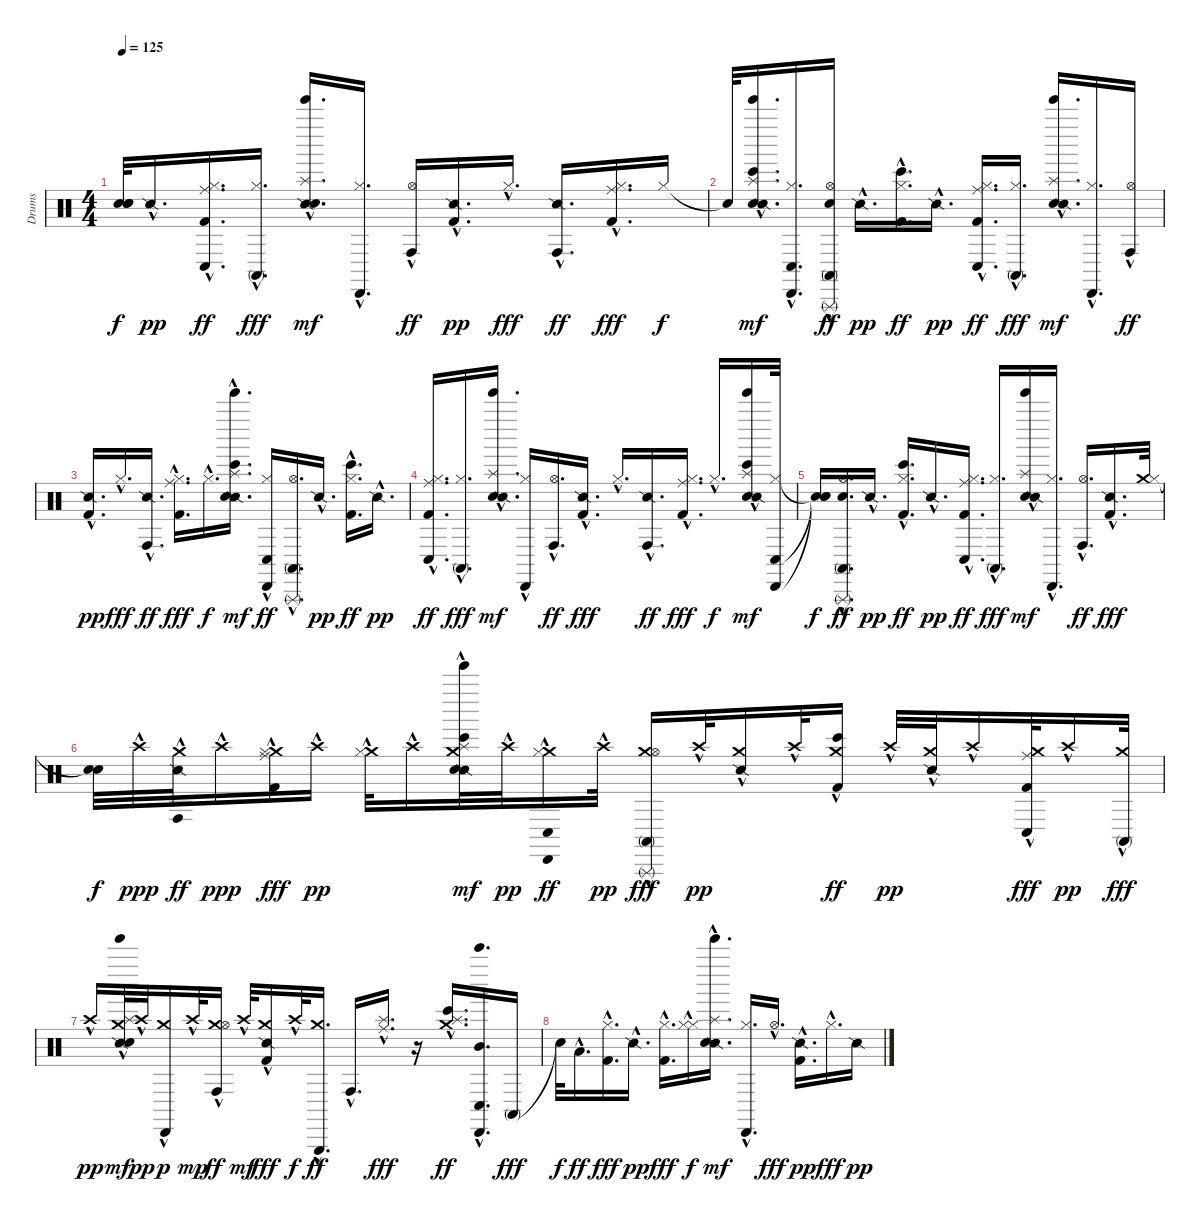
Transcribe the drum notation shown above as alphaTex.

\track ("Drums" "Drums") {instrument percussion}
\staff {score}
\articulation defaults
\ts (4 4)
\tempo 125
\clef neutral
\ks c
("Snare (hit)"{t} "Snare (hit)"{t} "Snare (hit)"{t}).32{dy f} "Snare (side stick) 2"{hac}.16{d dy pp} ("Ride (middle)"{hac} "Hi-Hat (closed)"{hac} "Kick (hit) 2"{hac} "Conga low (hit)"{hac}).16{d dy ff} ("Hi-Hat (closed)"{hac} "Conga high (mute)"{hac}).16{d dy fff} ("Snare (side stick) 2"{hac} "Hand Clap (hit)"{hac} "Tinkle Bell (hit)"{hac} "Splash (hit)"{hac}).16{d dy mf} ("Hi-Hat (closed)"{hac} "Cabasa (hit)"{hac}).16{d} ("Hi-Hat (open)"{hac} "Conga high (hit)"{hac}).16{dy ff} ("Kick (hit) 2"{hac} "Snare (side stick) 2"{hac}).16{d dy pp} "Hi-Hat (closed)"{hac}.16{d dy fff} ("Snare (side stick) 2"{hac} "Conga high (hit)"{hac}).16{d dy ff} ("Ride (middle)"{hac} "Kick (hit) 2"{hac} "Hi-Hat (closed)"{hac}).16{d dy fff} "Hi-Hat (closed)".16{dy f} |
"Snare (hit)"{t}.32 ("Hand Clap (hit)"{hac} "Bongo High (hit)"{hac} "Snare (side stick) 2"{hac} "Tinkle Bell (hit)"{hac} "Splash (hit)"{hac}).16{d dy mf} ("Cabasa (hit)"{hac} "Conga low (hit)"{hac} "Hi-Hat (closed)"{hac}).16{d} ("Hi-Hat (open)"{hac} "Conga high (mute)"{hac} "Hand Clap (hit)"{hac} "Triangle (rnute)"{hac}).16{dy ff} "Snare (side stick) 2"{hac}.16{d dy pp} ("Kick (hit) 2"{hac} "Hi-Hat (closed)"{hac} "Bongo High (hit)"{hac}).16{d dy ff} "Snare (side stick) 2"{hac}.16{d dy pp} ("Ride (middle)"{hac} "Hi-Hat (closed)"{hac} "Kick (hit) 2"{hac} "Conga low (hit)"{hac}).16{d dy ff} ("Hi-Hat (closed)"{hac} "Conga high (mute)"{hac}).16{d dy fff} ("Hand Clap (hit)"{hac} "Snare (side stick) 2"{hac} "Tinkle Bell (hit)"{hac} "Splash (hit)"{hac}).16{d dy mf} ("Hi-Hat (closed)"{hac} "Cabasa (hit)"{hac}).16{d} ("Hi-Hat (open)"{hac} "Conga high (hit)"{hac}).16{dy ff} |
("Kick (hit) 2"{hac} "Snare (side stick) 2"{hac}).16{d dy pp} "Hi-Hat (closed)"{hac}.16{d dy fff} ("Snare (side stick) 2"{hac} "Conga high (hit)"{hac}).16{d dy ff} ("Ride (middle)"{hac} "Hi-Hat (closed)"{hac} "Kick (hit) 2"{hac}).16{d dy fff} "Hi-Hat (closed)"{hac}.16{d dy f} ("Bongo High (hit)"{hac} "Snare (side stick) 2"{hac} "Hand Clap (hit)"{hac} "Tinkle Bell (hit)"{hac} "Splash (hit)"{hac}).16{d dy mf} ("Hi-Hat (closed)"{hac} "Conga low (hit)"{hac} "Cabasa (hit)"{hac}).16{dy ff} ("Hi-Hat (open)"{hac} "Conga high (mute)"{hac} "Triangle (rnute)"{hac}).16{d} "Snare (side stick) 2"{hac}.16{d dy pp} ("Kick (hit) 2"{hac} "Hi-Hat (closed)"{hac} "Bongo High (hit)"{hac}).16{d dy ff} "Snare (side stick) 2"{hac}.16{d dy pp} |
("Kick (hit) 2"{hac} "Hi-Hat (closed)"{hac} "Ride (middle)"{hac} "Conga low (hit)"{hac}).16{d dy ff} ("Hi-Hat (closed)"{hac} "Conga high (mute)"{hac}).16{d dy fff} ("Hand Clap (hit)"{hac} "Snare (side stick) 2"{hac} "Tinkle Bell (hit)"{hac} "Splash (hit)"{hac}).16{d dy mf} ("Cabasa (hit)"{hac} "Hi-Hat (closed)"{hac}).16 ("Hi-Hat (open)"{hac} "Conga high (hit)"{hac}).16{d dy ff} ("Snare (side stick) 2"{hac} "Kick (hit) 2"{hac}).16{d dy fff} "Hi-Hat (closed)"{hac}.16{d} ("Snare (side stick) 2"{hac} "Conga high (hit)"{hac}).16{d dy ff} ("Hi-Hat (closed)"{hac} "Ride (middle)"{hac} "Kick (hit) 2"{hac}).16{d dy fff} "Hi-Hat (closed)"{hac}.16{d dy f} ("Hand Clap (hit)"{hac} "Bongo High (hit)"{hac} "Snare (side stick) 2"{hac} "Tinkle Bell (hit)"{hac} "Splash (hit)"{hac}).16{dy mf} ("Cabasa (hit)" "Conga low (hit)" "Hi-Hat (closed)").32 |
("Snare (hit)"{t} "Snare (hit)"{t} "Snare (hit)"{t}).16{dy f} ("Hand Clap (hit)"{hac} "Conga high (mute)"{hac} "Hi-Hat (open)"{hac} "Triangle (rnute)"{hac}).16{d dy ff} "Snare (side stick) 2"{hac}.16{d dy pp} ("Hi-Hat (closed)"{hac} "Kick (hit) 2"{hac} "Bongo High (hit)"{hac}).16{d dy ff} "Snare (side stick) 2"{hac}.16{d dy pp} ("Kick (hit) 2"{hac} "Ride (middle)"{hac} "Hi-Hat (closed)"{hac} "Conga low (hit)"{hac}).16{d dy ff} ("Hi-Hat (closed)"{hac} "Conga high (mute)"{hac}).16{d dy fff} ("Hand Clap (hit)"{hac} "Snare (side stick) 2"{hac} "Tinkle Bell (hit)"{hac} "Splash (hit)"{hac}).16{dy mf} ("Cabasa (hit)"{hac} "Hi-Hat (closed)"{hac}).16{d} ("Hi-Hat (open)"{hac} "Conga high (hit)"{hac}).16{d dy ff} ("Snare (side stick) 2"{hac} "Kick (hit) 2"{hac}).16{d dy fff} ("Crash medium (hit)" "Hi-Hat (closed)").32 |
("Snare (hit)"{t} "Snare (hit)"{t}).32{dy f} "Crash high (hit)"{hac}.32{dy ppp} ("Crash medium (hit)"{hac} "Snare (side stick) 2"{hac} "Conga high (hit)"{hac}).32{dy ff} "Crash high (hit)"{hac}.16{dy ppp} ("Crash medium (hit)"{hac} "Hi-Hat (closed)"{hac} "Ride (middle)"{hac} "Kick (hit) 2"{hac}).32{dy fff} "Crash high (hit)"{hac}.16{dy pp} ("Crash medium (hit)"{hac} "Hi-Hat (closed)"{hac}).32 "Crash high (hit)"{hac}.16 ("Crash medium (hit)"{hac} "Snare (side stick) 2"{hac} "Hand Clap (hit)"{hac} "Bongo High (hit)"{hac} "Tinkle Bell (hit)"{hac} "Splash (hit)"{hac}).32{dy mf} "Crash high (hit)"{hac}.32{dy pp} ("Crash medium (hit)"{hac} "Cabasa (hit)"{hac} "Hi-Hat (closed)"{hac} "Conga low (hit)"{hac}).16{dy ff} "Crash high (hit)"{hac}.32{dy pp} ("Crash medium (hit)"{hac} "Hi-Hat (open)"{hac} "Triangle (rnute)"{hac} "Conga high (mute)"{hac}).16{dy fff} "Crash high (hit)"{hac}.32{dy pp} ("Crash medium (hit)"{hac} "Snare (side stick) 2"{hac}).16 "Crash high (hit)"{hac}.32 ("Crash medium (hit)"{hac} "Kick (hit) 2"{hac} "Bongo High (hit)"{hac}).16{dy ff} "Crash high (hit)"{hac}.32{dy pp} ("Crash medium (hit)"{hac} "Snare (side stick) 2"{hac}).32 "Crash high (hit)"{hac}.16 ("Crash medium (hit)"{hac} "Ride (middle)"{hac} "Conga low (hit)"{hac} "Kick (hit) 2"{hac}).32{dy fff} "Crash high (hit)"{hac}.16{dy pp} ("Crash medium (hit)"{hac} "Conga high (mute)"{hac}).32{dy fff} |
"Crash high (hit)"{hac}.16{dy pp} ("Crash medium (hit)"{hac} "Snare (side stick) 2"{hac} "Hand Clap (hit)"{hac} "Tinkle Bell (hit)"{hac} "Splash (hit)"{hac}).32{dy mf} "Crash high (hit)"{hac}.32{dy pp} ("Crash medium (hit)"{hac} "Cabasa (hit)"{hac}).16{dy p} "Crash high (hit)"{hac}.32{dy mp} ("Crash medium (hit)"{hac} "Hi-Hat (open)"{hac} "Conga high (hit)"{hac}).16{dy ff} "Crash high (hit)"{hac}.32{dy mf} ("Crash medium (hit)"{hac} "Snare (side stick) 2"{hac} "Kick (hit) 2"{hac}).16{dy fff} "Crash high (hit)"{hac}.32{dy f} ("Crash medium (hit)"{hac} "Triangle (hit)").16{d dy ff} "Conga high (hit)"{hac}.16{d} ("Splash (hit)"{hac} "Ride (middle)"{hac}).16{d dy fff} r.16 ("Crash medium (hit)"{hac} "Bongo High (hit)"{hac} "Splash (hit)"{hac}).16{d dy ff} ("Bell Tree (hit)"{hac} "Cabasa (hit)"{hac} "Conga low (hit)"{hac} "Mid Tom (hit)"{hac}).16{d} "Conga high (mute)".16{dy fff} |
"Snare (hit)"{t}.32{dy f} "Low Tom (hit)"{hac}.16{d dy ff} ("Hi-Hat (closed)"{hac} "Kick (hit) 2"{hac}).16{d dy fff} "Snare (side stick) 2"{hac}.16{d dy pp} ("Kick (hit) 2"{hac} "Hi-Hat (closed)"{hac}).16{d dy fff} ("Hi-Hat (closed)"{hac} "Hi-Hat (closed)"{hac}).16{dy f} ("Snare (side stick) 2"{hac} "Hand Clap (hit)"{hac} "Tinkle Bell (hit)"{hac} "Splash (hit)"{hac}).16{d dy mf} ("Hi-Hat (closed)"{hac} "Cabasa (hit)"{hac}).16{d} "Hi-Hat (open)"{hac}.16{d dy fff} ("Kick (hit) 2"{hac} "Snare (side stick) 2"{hac}).16{d dy pp} "Hi-Hat (closed)"{hac}.16{d dy fff} "Snare (side stick) 2".16{dy pp}
